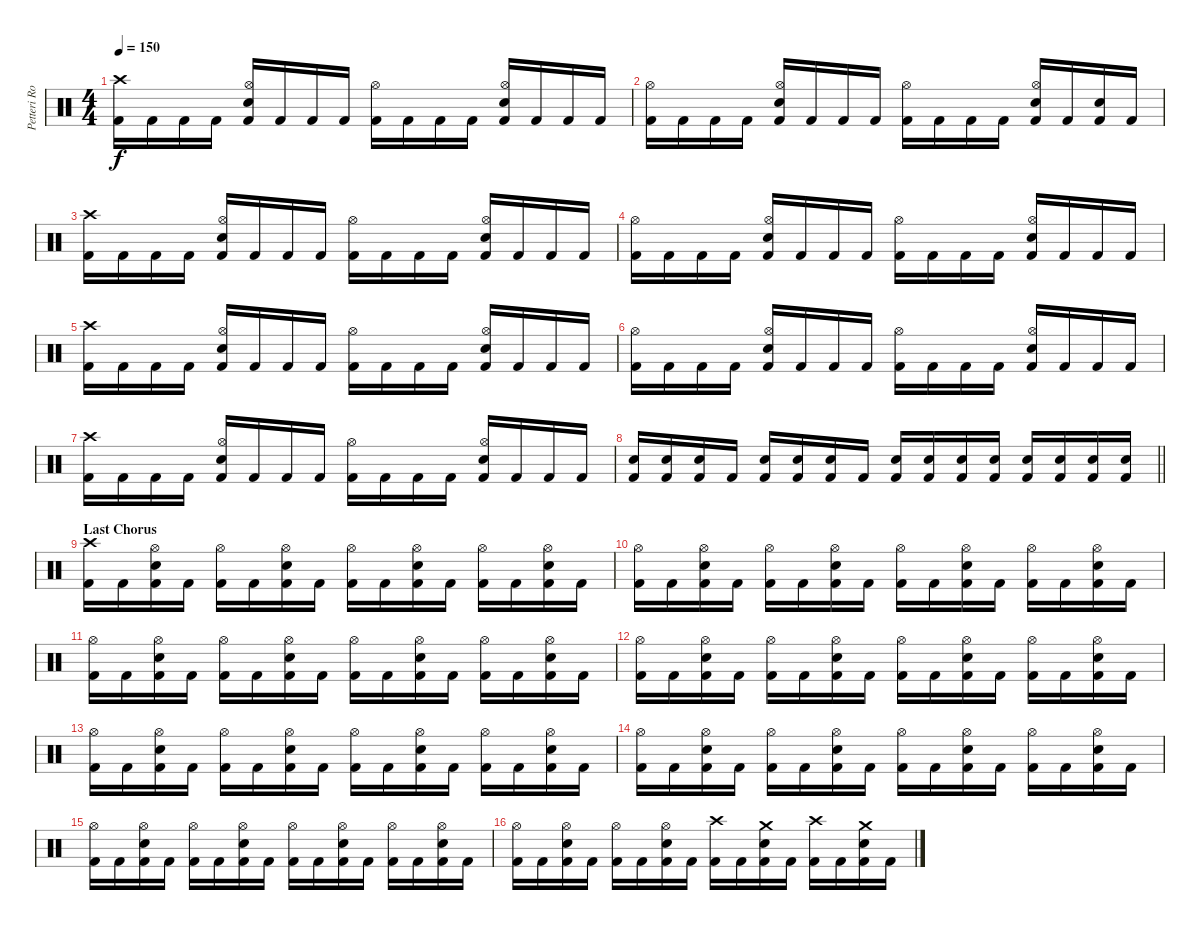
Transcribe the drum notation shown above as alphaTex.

\track ("Petteri Rosenbom" "Petteri Ro") {instrument percussion}
\staff {score}
\articulation defaults
\ts (4 4)
\tempo 150
\clef neutral
\ks c
("Crash high (hit)" "Kick (hit) 2").16{dy f} "Kick (hit) 2".16 "Kick (hit) 2".16 "Kick (hit) 2".16 ("Hi-Hat (open)" "Electric Snare (hit)" "Kick (hit) 2").16 "Kick (hit) 2".16 "Kick (hit) 2".16 "Kick (hit) 2".16 ("Hi-Hat (open)" "Kick (hit) 2").16 "Kick (hit) 2".16 "Kick (hit) 2".16 "Kick (hit) 2".16 ("Hi-Hat (open)" "Electric Snare (hit)" "Kick (hit) 2").16 "Kick (hit) 2".16 "Kick (hit) 2".16 "Kick (hit) 2".16 |
("Hi-Hat (open)" "Kick (hit) 2").16 "Kick (hit) 2".16 "Kick (hit) 2".16 "Kick (hit) 2".16 ("Hi-Hat (open)" "Electric Snare (hit)" "Kick (hit) 2").16 "Kick (hit) 2".16 "Kick (hit) 2".16 "Kick (hit) 2".16 ("Hi-Hat (open)" "Kick (hit) 2").16 "Kick (hit) 2".16 "Kick (hit) 2".16 "Kick (hit) 2".16 ("Hi-Hat (open)" "Electric Snare (hit)" "Kick (hit) 2").16 "Kick (hit) 2".16 ("Electric Snare (hit)" "Kick (hit) 2").16 "Kick (hit) 2".16 |
("Crash high (hit)" "Kick (hit) 2").16 "Kick (hit) 2".16 "Kick (hit) 2".16 "Kick (hit) 2".16 ("Hi-Hat (open)" "Electric Snare (hit)" "Kick (hit) 2").16 "Kick (hit) 2".16 "Kick (hit) 2".16 "Kick (hit) 2".16 ("Hi-Hat (open)" "Kick (hit) 2").16 "Kick (hit) 2".16 "Kick (hit) 2".16 "Kick (hit) 2".16 ("Hi-Hat (open)" "Electric Snare (hit)" "Kick (hit) 2").16 "Kick (hit) 2".16 "Kick (hit) 2".16 "Kick (hit) 2".16 |
("Hi-Hat (open)" "Kick (hit) 2").16 "Kick (hit) 2".16 "Kick (hit) 2".16 "Kick (hit) 2".16 ("Hi-Hat (open)" "Electric Snare (hit)" "Kick (hit) 2").16 "Kick (hit) 2".16 "Kick (hit) 2".16 "Kick (hit) 2".16 ("Hi-Hat (open)" "Kick (hit) 2").16 "Kick (hit) 2".16 "Kick (hit) 2".16 "Kick (hit) 2".16 ("Hi-Hat (open)" "Electric Snare (hit)" "Kick (hit) 2").16 "Kick (hit) 2".16 "Kick (hit) 2".16 "Kick (hit) 2".16 |
("Crash high (hit)" "Kick (hit) 2").16 "Kick (hit) 2".16 "Kick (hit) 2".16 "Kick (hit) 2".16 ("Hi-Hat (open)" "Electric Snare (hit)" "Kick (hit) 2").16 "Kick (hit) 2".16 "Kick (hit) 2".16 "Kick (hit) 2".16 ("Hi-Hat (open)" "Kick (hit) 2").16 "Kick (hit) 2".16 "Kick (hit) 2".16 "Kick (hit) 2".16 ("Hi-Hat (open)" "Electric Snare (hit)" "Kick (hit) 2").16 "Kick (hit) 2".16 "Kick (hit) 2".16 "Kick (hit) 2".16 |
("Hi-Hat (open)" "Kick (hit) 2").16 "Kick (hit) 2".16 "Kick (hit) 2".16 "Kick (hit) 2".16 ("Hi-Hat (open)" "Electric Snare (hit)" "Kick (hit) 2").16 "Kick (hit) 2".16 "Kick (hit) 2".16 "Kick (hit) 2".16 ("Hi-Hat (open)" "Kick (hit) 2").16 "Kick (hit) 2".16 "Kick (hit) 2".16 "Kick (hit) 2".16 ("Hi-Hat (open)" "Electric Snare (hit)" "Kick (hit) 2").16 "Kick (hit) 2".16 "Kick (hit) 2".16 "Kick (hit) 2".16 |
("Crash high (hit)" "Kick (hit) 2").16 "Kick (hit) 2".16 "Kick (hit) 2".16 "Kick (hit) 2".16 ("Hi-Hat (open)" "Electric Snare (hit)" "Kick (hit) 2").16 "Kick (hit) 2".16 "Kick (hit) 2".16 "Kick (hit) 2".16 ("Hi-Hat (open)" "Kick (hit) 2").16 "Kick (hit) 2".16 "Kick (hit) 2".16 "Kick (hit) 2".16 ("Hi-Hat (open)" "Electric Snare (hit)" "Kick (hit) 2").16 "Kick (hit) 2".16 "Kick (hit) 2".16 "Kick (hit) 2".16 |
\barLineRight lightlight
("Electric Snare (hit)" "Kick (hit) 2").16 ("Electric Snare (hit)" "Kick (hit) 2").16 ("Electric Snare (hit)" "Kick (hit) 2").16 "Kick (hit) 2".16 ("Electric Snare (hit)" "Kick (hit) 2").16 ("Electric Snare (hit)" "Kick (hit) 2").16 ("Electric Snare (hit)" "Kick (hit) 2").16 "Kick (hit) 2".16 ("Electric Snare (hit)" "Kick (hit) 2").16 ("Electric Snare (hit)" "Kick (hit) 2").16 ("Electric Snare (hit)" "Kick (hit) 2").16 ("Electric Snare (hit)" "Kick (hit) 2").16 ("Electric Snare (hit)" "Kick (hit) 2").16 ("Electric Snare (hit)" "Kick (hit) 2").16 ("Electric Snare (hit)" "Kick (hit) 2").16 ("Electric Snare (hit)" "Kick (hit) 2").16 |
\section ("" "Last Chorus")
("Crash high (hit)" "Kick (hit) 2").16 "Kick (hit) 2".16 ("Hi-Hat (open)" "Electric Snare (hit)" "Kick (hit) 2").16 "Kick (hit) 2".16 ("Hi-Hat (open)" "Kick (hit) 2").16 "Kick (hit) 2".16 ("Hi-Hat (open)" "Electric Snare (hit)" "Kick (hit) 2").16 "Kick (hit) 2".16 ("Hi-Hat (open)" "Kick (hit) 2").16 "Kick (hit) 2".16 ("Hi-Hat (open)" "Electric Snare (hit)" "Kick (hit) 2").16 "Kick (hit) 2".16 ("Hi-Hat (open)" "Kick (hit) 2").16 "Kick (hit) 2".16 ("Hi-Hat (open)" "Electric Snare (hit)" "Kick (hit) 2").16 "Kick (hit) 2".16 |
("Hi-Hat (open)" "Kick (hit) 2").16 "Kick (hit) 2".16 ("Hi-Hat (open)" "Electric Snare (hit)" "Kick (hit) 2").16 "Kick (hit) 2".16 ("Hi-Hat (open)" "Kick (hit) 2").16 "Kick (hit) 2".16 ("Hi-Hat (open)" "Electric Snare (hit)" "Kick (hit) 2").16 "Kick (hit) 2".16 ("Hi-Hat (open)" "Kick (hit) 2").16 "Kick (hit) 2".16 ("Hi-Hat (open)" "Electric Snare (hit)" "Kick (hit) 2").16 "Kick (hit) 2".16 ("Hi-Hat (open)" "Kick (hit) 2").16 "Kick (hit) 2".16 ("Hi-Hat (open)" "Electric Snare (hit)" "Kick (hit) 2").16 "Kick (hit) 2".16 |
("Hi-Hat (open)" "Kick (hit) 2").16 "Kick (hit) 2".16 ("Hi-Hat (open)" "Electric Snare (hit)" "Kick (hit) 2").16 "Kick (hit) 2".16 ("Hi-Hat (open)" "Kick (hit) 2").16 "Kick (hit) 2".16 ("Hi-Hat (open)" "Electric Snare (hit)" "Kick (hit) 2").16 "Kick (hit) 2".16 ("Hi-Hat (open)" "Kick (hit) 2").16 "Kick (hit) 2".16 ("Hi-Hat (open)" "Electric Snare (hit)" "Kick (hit) 2").16 "Kick (hit) 2".16 ("Hi-Hat (open)" "Kick (hit) 2").16 "Kick (hit) 2".16 ("Hi-Hat (open)" "Electric Snare (hit)" "Kick (hit) 2").16 "Kick (hit) 2".16 |
("Hi-Hat (open)" "Kick (hit) 2").16 "Kick (hit) 2".16 ("Hi-Hat (open)" "Electric Snare (hit)" "Kick (hit) 2").16 "Kick (hit) 2".16 ("Hi-Hat (open)" "Kick (hit) 2").16 "Kick (hit) 2".16 ("Hi-Hat (open)" "Electric Snare (hit)" "Kick (hit) 2").16 "Kick (hit) 2".16 ("Hi-Hat (open)" "Kick (hit) 2").16 "Kick (hit) 2".16 ("Hi-Hat (open)" "Electric Snare (hit)" "Kick (hit) 2").16 "Kick (hit) 2".16 ("Hi-Hat (open)" "Kick (hit) 2").16 "Kick (hit) 2".16 ("Hi-Hat (open)" "Electric Snare (hit)" "Kick (hit) 2").16 "Kick (hit) 2".16 |
("Hi-Hat (open)" "Kick (hit) 2").16 "Kick (hit) 2".16 ("Hi-Hat (open)" "Electric Snare (hit)" "Kick (hit) 2").16 "Kick (hit) 2".16 ("Hi-Hat (open)" "Kick (hit) 2").16 "Kick (hit) 2".16 ("Hi-Hat (open)" "Electric Snare (hit)" "Kick (hit) 2").16 "Kick (hit) 2".16 ("Hi-Hat (open)" "Kick (hit) 2").16 "Kick (hit) 2".16 ("Hi-Hat (open)" "Electric Snare (hit)" "Kick (hit) 2").16 "Kick (hit) 2".16 ("Hi-Hat (open)" "Kick (hit) 2").16 "Kick (hit) 2".16 ("Hi-Hat (open)" "Electric Snare (hit)" "Kick (hit) 2").16 "Kick (hit) 2".16 |
("Hi-Hat (open)" "Kick (hit) 2").16 "Kick (hit) 2".16 ("Hi-Hat (open)" "Electric Snare (hit)" "Kick (hit) 2").16 "Kick (hit) 2".16 ("Hi-Hat (open)" "Kick (hit) 2").16 "Kick (hit) 2".16 ("Hi-Hat (open)" "Electric Snare (hit)" "Kick (hit) 2").16 "Kick (hit) 2".16 ("Hi-Hat (open)" "Kick (hit) 2").16 "Kick (hit) 2".16 ("Hi-Hat (open)" "Electric Snare (hit)" "Kick (hit) 2").16 "Kick (hit) 2".16 ("Hi-Hat (open)" "Kick (hit) 2").16 "Kick (hit) 2".16 ("Hi-Hat (open)" "Electric Snare (hit)" "Kick (hit) 2").16 "Kick (hit) 2".16 |
("Hi-Hat (open)" "Kick (hit) 2").16 "Kick (hit) 2".16 ("Hi-Hat (open)" "Electric Snare (hit)" "Kick (hit) 2").16 "Kick (hit) 2".16 ("Hi-Hat (open)" "Kick (hit) 2").16 "Kick (hit) 2".16 ("Hi-Hat (open)" "Electric Snare (hit)" "Kick (hit) 2").16 "Kick (hit) 2".16 ("Hi-Hat (open)" "Kick (hit) 2").16 "Kick (hit) 2".16 ("Hi-Hat (open)" "Electric Snare (hit)" "Kick (hit) 2").16 "Kick (hit) 2".16 ("Hi-Hat (open)" "Kick (hit) 2").16 "Kick (hit) 2".16 ("Hi-Hat (open)" "Electric Snare (hit)" "Kick (hit) 2").16 "Kick (hit) 2".16 |
("Hi-Hat (open)" "Kick (hit) 2").16 "Kick (hit) 2".16 ("Hi-Hat (open)" "Electric Snare (hit)" "Kick (hit) 2").16 "Kick (hit) 2".16 ("Hi-Hat (open)" "Kick (hit) 2").16 "Kick (hit) 2".16 ("Hi-Hat (open)" "Electric Snare (hit)" "Kick (hit) 2").16 "Kick (hit) 2".16 ("Crash high (hit)" "Kick (hit) 2").16 "Kick (hit) 2".16 ("Crash medium (hit)" "Electric Snare (hit)" "Kick (hit) 2").16 "Kick (hit) 2".16 ("Crash high (hit)" "Kick (hit) 2").16 "Kick (hit) 2".16 ("Crash medium (hit)" "Electric Snare (hit)" "Kick (hit) 2").16 "Kick (hit) 2".16
